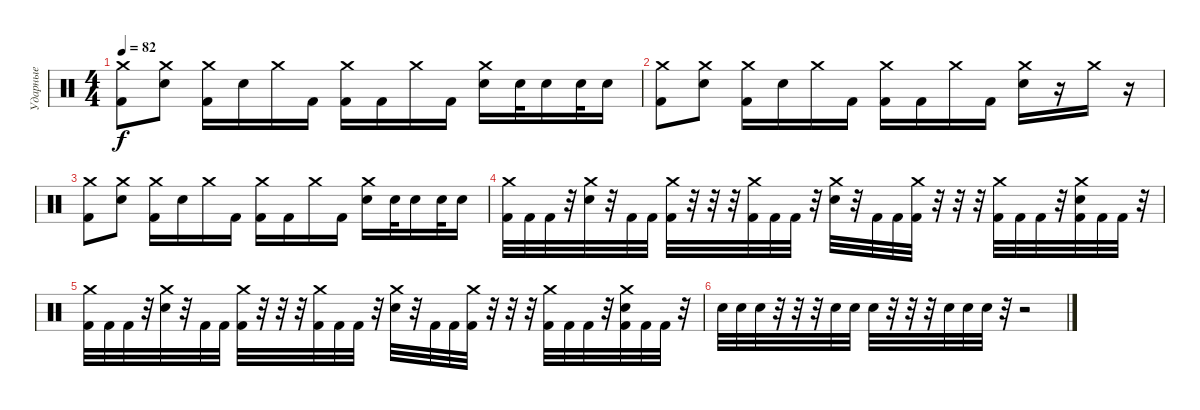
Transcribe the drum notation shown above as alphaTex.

\track ("Ударные" "Ударные") {instrument percussion}
\staff {score}
\articulation defaults
\ts (4 4)
\tempo 82
\clef neutral
\ks c
("Crash medium (hit)" "Kick (hit) 2").8{dy f} ("Crash medium (hit)" "Electric Snare (hit)").8 ("Crash medium (hit)" "Kick (hit) 2").16 "Electric Snare (hit)".16 "Crash medium (hit)".16 "Kick (hit) 2".16 ("Crash medium (hit)" "Kick (hit) 2").16 "Kick (hit) 2".16 "Crash medium (hit)".16 "Kick (hit) 2".16 ("Crash medium (hit)" "Electric Snare (hit)").16 "Electric Snare (hit)".32 "Electric Snare (hit)".16 "Electric Snare (hit)".32 "Electric Snare (hit)".16 |
("Crash medium (hit)" "Kick (hit) 2").8 ("Crash medium (hit)" "Electric Snare (hit)").8 ("Crash medium (hit)" "Kick (hit) 2").16 "Electric Snare (hit)".16 "Crash medium (hit)".16 "Kick (hit) 2".16 ("Crash medium (hit)" "Kick (hit) 2").16 "Kick (hit) 2".16 "Crash medium (hit)".16 "Kick (hit) 2".16 ("Crash medium (hit)" "Electric Snare (hit)").16 r.16 "Crash medium (hit)".16 r.16 |
("Crash medium (hit)" "Kick (hit) 2").8 ("Crash medium (hit)" "Electric Snare (hit)").8 ("Crash medium (hit)" "Kick (hit) 2").16 "Electric Snare (hit)".16 "Crash medium (hit)".16 "Kick (hit) 2".16 ("Crash medium (hit)" "Kick (hit) 2").16 "Kick (hit) 2".16 "Crash medium (hit)".16 "Kick (hit) 2".16 ("Crash medium (hit)" "Electric Snare (hit)").16 "Electric Snare (hit)".32 "Electric Snare (hit)".16 "Electric Snare (hit)".32 "Electric Snare (hit)".16 |
("Crash medium (hit)" "Kick (hit) 2").32 "Kick (hit) 2".32 "Kick (hit) 2".32 r.32 ("Crash medium (hit)" "Electric Snare (hit)").32 r.32 "Kick (hit) 2".32 "Kick (hit) 2".32 ("Crash medium (hit)" "Kick (hit) 2").32 r.32 r.32 r.32 ("Crash medium (hit)" "Kick (hit) 2").32 "Kick (hit) 2".32 "Kick (hit) 2".32 r.32 ("Crash medium (hit)" "Electric Snare (hit)").32 r.32 "Kick (hit) 2".32 "Kick (hit) 2".32 ("Crash medium (hit)" "Kick (hit) 2").32 r.32 r.32 r.32 ("Crash medium (hit)" "Kick (hit) 2").32 "Kick (hit) 2".32 "Kick (hit) 2".32 r.32 ("Crash medium (hit)" "Electric Snare (hit)" "Kick (hit) 2").32 "Kick (hit) 2".32 "Kick (hit) 2".32 r.32 |
("Crash medium (hit)" "Kick (hit) 2").32 "Kick (hit) 2".32 "Kick (hit) 2".32 r.32 ("Crash medium (hit)" "Electric Snare (hit)").32 r.32 "Kick (hit) 2".32 "Kick (hit) 2".32 ("Crash medium (hit)" "Kick (hit) 2").32 r.32 r.32 r.32 ("Crash medium (hit)" "Kick (hit) 2").32 "Kick (hit) 2".32 "Kick (hit) 2".32 r.32 ("Crash medium (hit)" "Electric Snare (hit)").32 r.32 "Kick (hit) 2".32 "Kick (hit) 2".32 ("Crash medium (hit)" "Kick (hit) 2").32 r.32 r.32 r.32 ("Crash medium (hit)" "Kick (hit) 2").32 "Kick (hit) 2".32 "Kick (hit) 2".32 r.32 ("Crash medium (hit)" "Electric Snare (hit)" "Kick (hit) 2").32 "Kick (hit) 2".32 "Kick (hit) 2".32 r.32 |
"Electric Snare (hit)".32 "Electric Snare (hit)".32 "Electric Snare (hit)".32 r.32 r.32 r.32 "Electric Snare (hit)".32 "Electric Snare (hit)".32 "Electric Snare (hit)".32 r.32 r.32 r.32 "Electric Snare (hit)".32 "Electric Snare (hit)".32 "Electric Snare (hit)".32 r.32 r.2
